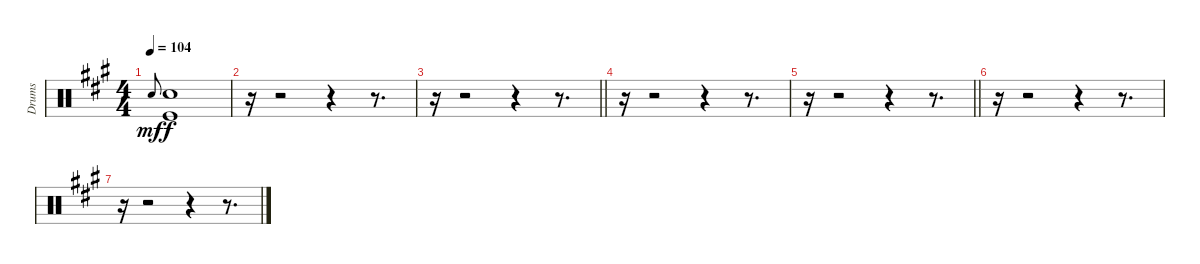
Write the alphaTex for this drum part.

\track ("Drums" "Drums") {mute instrument percussion}
\staff {score}
\articulation defaults
\ts (4 4)
\tempo 104
\clef neutral
\ks a "Snare (hit)".8{gr onbeat dy mf}
("Snare (hit) 2" "Kick (hit)").1{dy f} |
r.16 r.2 r.4 r.8{d} |
\barLineRight lightlight
r.16 r.2 r.4 r.8{d} |
r.16 r.2 r.4 r.8{d} |
\barLineRight lightlight
r.16 r.2 r.4 r.8{d} |
r.16 r.2 r.4 r.8{d} |
r.16 r.2 r.4 r.8{d}
